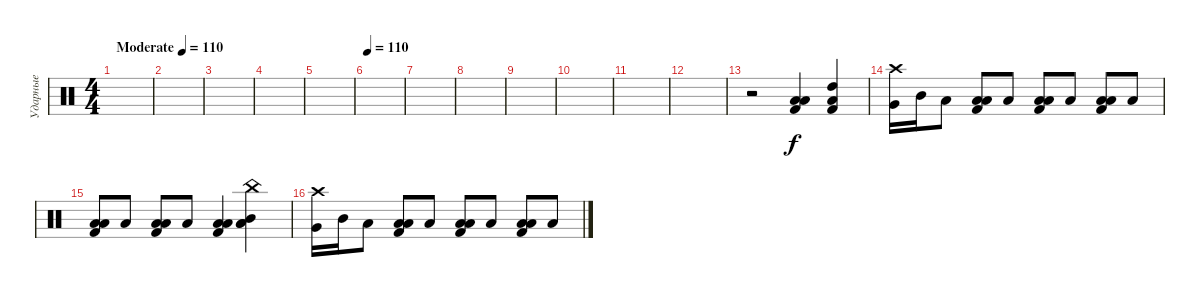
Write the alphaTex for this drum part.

\track ("Ударные" "Ударные") {instrument percussion}
\staff {score}
\articulation defaults
\ts (4 4)
\tempo (110 "Moderate")
\tempo 75
\tempo (110 "Moderate")
\clef neutral
\ks c
|
|
|
|
|
\tempo 110
|
|
|
|
|
|
|
r.2 ("Low Tom (hit)" "Kick (hit) 2" "Low Floor Tom (hit)").4 ("High Tom (hit)" "Kick (hit) 2" "Low Floor Tom (hit)").4 |
("Crash high (hit)" "Very Low Tom (hit)").16 "Mid Tom (hit)".16 "Low Floor Tom (hit)".8 ("Low Tom (hit)" "Kick (hit) 2" "Low Floor Tom (hit)").8 "Low Floor Tom (hit)".8 ("Low Tom (hit)" "Kick (hit) 2" "Low Floor Tom (hit)").8 "Low Floor Tom (hit)".8 ("Low Tom (hit)" "Kick (hit) 2" "Low Floor Tom (hit)").8 "Low Floor Tom (hit)".8 |
("Low Tom (hit)" "Kick (hit) 2" "Low Floor Tom (hit)").8 "Low Floor Tom (hit)".8 ("Low Tom (hit)" "Kick (hit) 2" "Low Floor Tom (hit)").8 "Low Floor Tom (hit)".8 ("Low Tom (hit)" "Kick (hit) 2" "Low Floor Tom (hit)").4 ("China (hit)" "Low Tom (hit)" "Mid Tom (hit)" "Low Floor Tom (hit)").4 |
("Crash high (hit)" "Very Low Tom (hit)").16 "Mid Tom (hit)".16 "Low Floor Tom (hit)".8 ("Low Tom (hit)" "Kick (hit) 2" "Low Floor Tom (hit)").8 "Low Floor Tom (hit)".8 ("Low Tom (hit)" "Kick (hit) 2" "Low Floor Tom (hit)").8 "Low Floor Tom (hit)".8 ("Low Tom (hit)" "Kick (hit) 2" "Low Floor Tom (hit)").8 "Low Floor Tom (hit)".8
